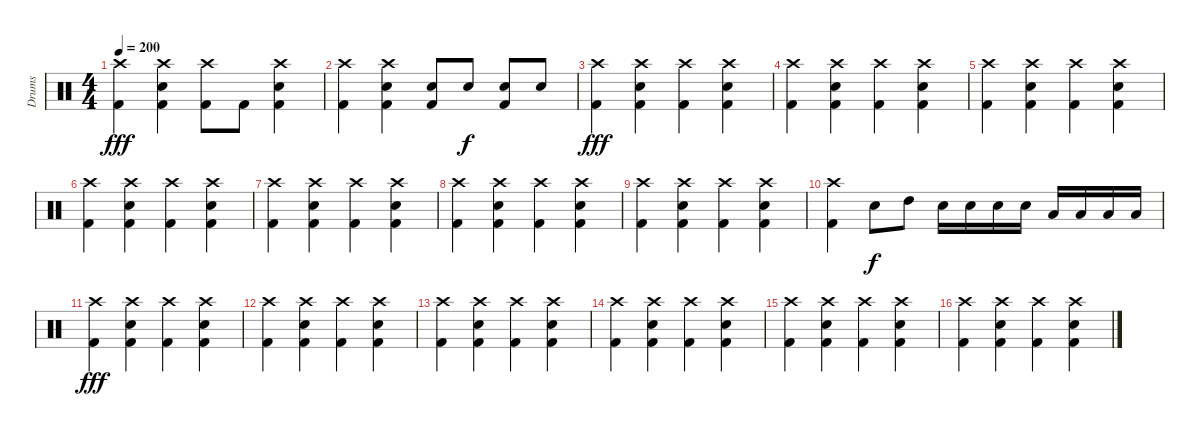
\track ("Drums" "Drums") {instrument percussion}
\staff {score}
\articulation defaults
\ts (4 4)
\tempo 200
\clef neutral
\ks c
("Crash high (hit)" "Kick (hit) 2").4{dy fff} ("Crash high (hit)" "Snare (hit) 2" "Kick (hit) 2").4 ("Crash high (hit)" "Kick (hit) 2").8 "Kick (hit) 2".8 ("Crash high (hit)" "Snare (hit) 2" "Kick (hit) 2").4 |
("Crash high (hit)" "Kick (hit) 2").4 ("Crash high (hit)" "Snare (hit) 2" "Kick (hit) 2").4 ("Snare (hit) 2" "Kick (hit) 2").8 "Snare (hit) 2".8{dy f} ("Snare (hit) 2" "Kick (hit) 2").8 "Snare (hit) 2".8 |
("Crash high (hit)" "Kick (hit) 2").4{dy fff} ("Crash high (hit)" "Snare (hit) 2" "Kick (hit) 2").4 ("Crash high (hit)" "Kick (hit) 2").4 ("Crash high (hit)" "Snare (hit) 2" "Kick (hit) 2").4 |
("Crash high (hit)" "Kick (hit) 2").4 ("Crash high (hit)" "Snare (hit) 2" "Kick (hit) 2").4 ("Crash high (hit)" "Kick (hit) 2").4 ("Crash high (hit)" "Snare (hit) 2" "Kick (hit) 2").4 |
("Crash high (hit)" "Kick (hit) 2").4 ("Crash high (hit)" "Snare (hit) 2" "Kick (hit) 2").4 ("Crash high (hit)" "Kick (hit) 2").4 ("Crash high (hit)" "Snare (hit) 2" "Kick (hit) 2").4 |
("Crash high (hit)" "Kick (hit) 2").4 ("Crash high (hit)" "Snare (hit) 2" "Kick (hit) 2").4 ("Crash high (hit)" "Kick (hit) 2").4 ("Crash high (hit)" "Snare (hit) 2" "Kick (hit) 2").4 |
("Crash high (hit)" "Kick (hit) 2").4 ("Crash high (hit)" "Snare (hit) 2" "Kick (hit) 2").4 ("Crash high (hit)" "Kick (hit) 2").4 ("Crash high (hit)" "Snare (hit) 2" "Kick (hit) 2").4 |
("Crash high (hit)" "Kick (hit) 2").4 ("Crash high (hit)" "Snare (hit) 2" "Kick (hit) 2").4 ("Crash high (hit)" "Kick (hit) 2").4 ("Crash high (hit)" "Snare (hit) 2" "Kick (hit) 2").4 |
("Crash high (hit)" "Kick (hit) 2").4 ("Crash high (hit)" "Snare (hit) 2" "Kick (hit) 2").4 ("Crash high (hit)" "Kick (hit) 2").4 ("Crash high (hit)" "Snare (hit) 2" "Kick (hit) 2").4 |
("Crash high (hit)" "Kick (hit) 2").4 "Snare (hit) 2".8{dy f} "High Tom (hit)".8 "Electric Snare (hit)".16 "Electric Snare (hit)".16 "Electric Snare (hit)".16 "Electric Snare (hit)".16 "Low Tom (hit)".16 "Low Tom (hit)".16 "Low Tom (hit)".16 "Low Tom (hit)".16 |
("Crash high (hit)" "Kick (hit) 2").4{dy fff} ("Crash high (hit)" "Snare (hit) 2" "Kick (hit) 2").4 ("Crash high (hit)" "Kick (hit) 2").4 ("Crash high (hit)" "Snare (hit) 2" "Kick (hit) 2").4 |
("Crash high (hit)" "Kick (hit) 2").4 ("Crash high (hit)" "Snare (hit) 2" "Kick (hit) 2").4 ("Crash high (hit)" "Kick (hit) 2").4 ("Crash high (hit)" "Snare (hit) 2" "Kick (hit) 2").4 |
("Crash high (hit)" "Kick (hit) 2").4 ("Crash high (hit)" "Snare (hit) 2" "Kick (hit) 2").4 ("Crash high (hit)" "Kick (hit) 2").4 ("Crash high (hit)" "Snare (hit) 2" "Kick (hit) 2").4 |
("Crash high (hit)" "Kick (hit) 2").4 ("Crash high (hit)" "Snare (hit) 2" "Kick (hit) 2").4 ("Crash high (hit)" "Kick (hit) 2").4 ("Crash high (hit)" "Snare (hit) 2" "Kick (hit) 2").4 |
("Crash high (hit)" "Kick (hit) 2").4 ("Crash high (hit)" "Snare (hit) 2" "Kick (hit) 2").4 ("Crash high (hit)" "Kick (hit) 2").4 ("Crash high (hit)" "Snare (hit) 2" "Kick (hit) 2").4 |
("Crash high (hit)" "Kick (hit) 2").4 ("Crash high (hit)" "Snare (hit) 2" "Kick (hit) 2").4 ("Crash high (hit)" "Kick (hit) 2").4 ("Crash high (hit)" "Snare (hit) 2" "Kick (hit) 2").4
